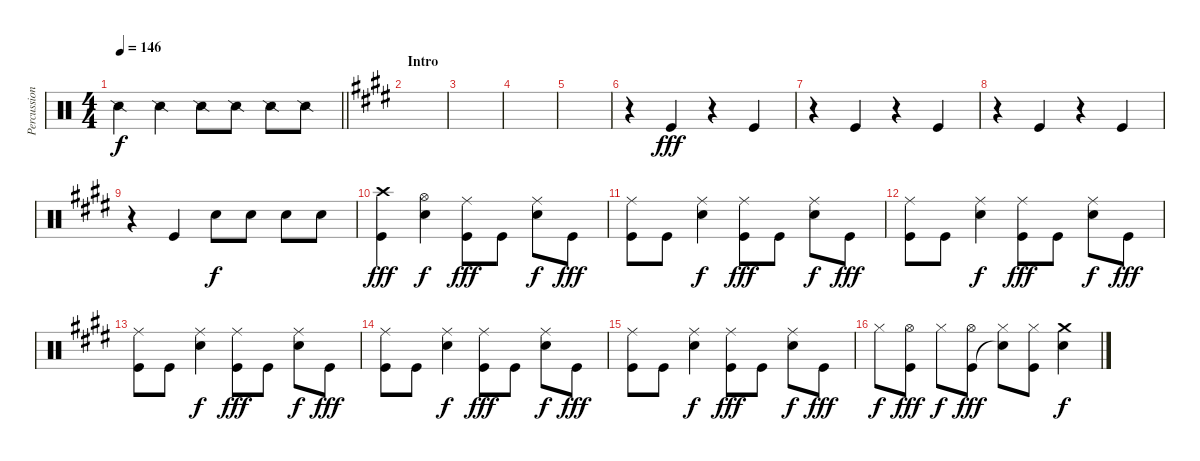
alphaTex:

\track ("Percussion" "Percussion") {instrument percussion}
\staff {score}
\articulation defaults
\ts (4 4)
\tempo 146
\clef neutral
\barLineRight lightlight
\ks c "Snare (side stick) 2".4{dy f} "Snare (side stick) 2".4 "Snare (side stick) 2".8 "Snare (side stick) 2".8 "Snare (side stick) 2".8 "Snare (side stick) 2".8
|
\section ("" "Intro")
\ks e
|
|
|
|
r.4 "Kick (hit)".4{dy fff} r.4 "Kick (hit)".4 |
r.4 "Kick (hit)".4 r.4 "Kick (hit)".4 |
r.4 "Kick (hit)".4 r.4 "Kick (hit)".4 |
r.4 "Kick (hit)".4 "Snare (hit) 2".8{dy f} "Snare (hit) 2".8 "Snare (hit) 2".8 "Snare (hit) 2".8 |
("Crash high (hit)" "Kick (hit)").4{dy fff} ("Hi-Hat (open)" "Snare (hit) 2").4{dy f} ("Ride (middle)" "Kick (hit)").8{dy fff} "Kick (hit)".8 ("Ride (middle)" "Snare (hit) 2").8{dy f} "Kick (hit)".8{dy fff} |
("Ride (middle)" "Kick (hit)").8 "Kick (hit)".8 ("Ride (middle)" "Snare (hit) 2").4{dy f} ("Ride (middle)" "Kick (hit)").8{dy fff} "Kick (hit)".8 ("Ride (middle)" "Snare (hit) 2").8{dy f} "Kick (hit)".8{dy fff} |
("Ride (middle)" "Kick (hit)").8 "Kick (hit)".8 ("Ride (middle)" "Snare (hit) 2").4{dy f} ("Ride (middle)" "Kick (hit)").8{dy fff} "Kick (hit)".8 ("Ride (middle)" "Snare (hit) 2").8{dy f} "Kick (hit)".8{dy fff} |
("Ride (middle)" "Kick (hit)").8 "Kick (hit)".8 ("Ride (middle)" "Snare (hit) 2").4{dy f} ("Ride (middle)" "Kick (hit)").8{dy fff} "Kick (hit)".8 ("Ride (middle)" "Snare (hit) 2").8{dy f} "Kick (hit)".8{dy fff} |
("Ride (middle)" "Kick (hit)").8 "Kick (hit)".8 ("Ride (middle)" "Snare (hit) 2").4{dy f} ("Ride (middle)" "Kick (hit)").8{dy fff} "Kick (hit)".8 ("Ride (middle)" "Snare (hit) 2").8{dy f} "Kick (hit)".8{dy fff} |
("Ride (middle)" "Kick (hit)").8 "Kick (hit)".8 ("Ride (middle)" "Snare (hit) 2").4{dy f} ("Ride (middle)" "Kick (hit)").8{dy fff} "Kick (hit)".8 ("Ride (middle)" "Snare (hit) 2").8{dy f} "Kick (hit)".8{dy fff} |
"Hi-Hat (closed)".8{dy f} ("Hi-Hat (open)" "Kick (hit)").8{dy fff} "Hi-Hat (closed)".8{dy f} ("Hi-Hat (open)" "Kick (hit)").8{dy fff} ("Hi-Hat (closed)" "Snare (hit)"{t}).8 ("Hi-Hat (closed)" "Kick (hit)").8 ("Crash medium (hit)" "Snare (hit) 2").4{dy f}
